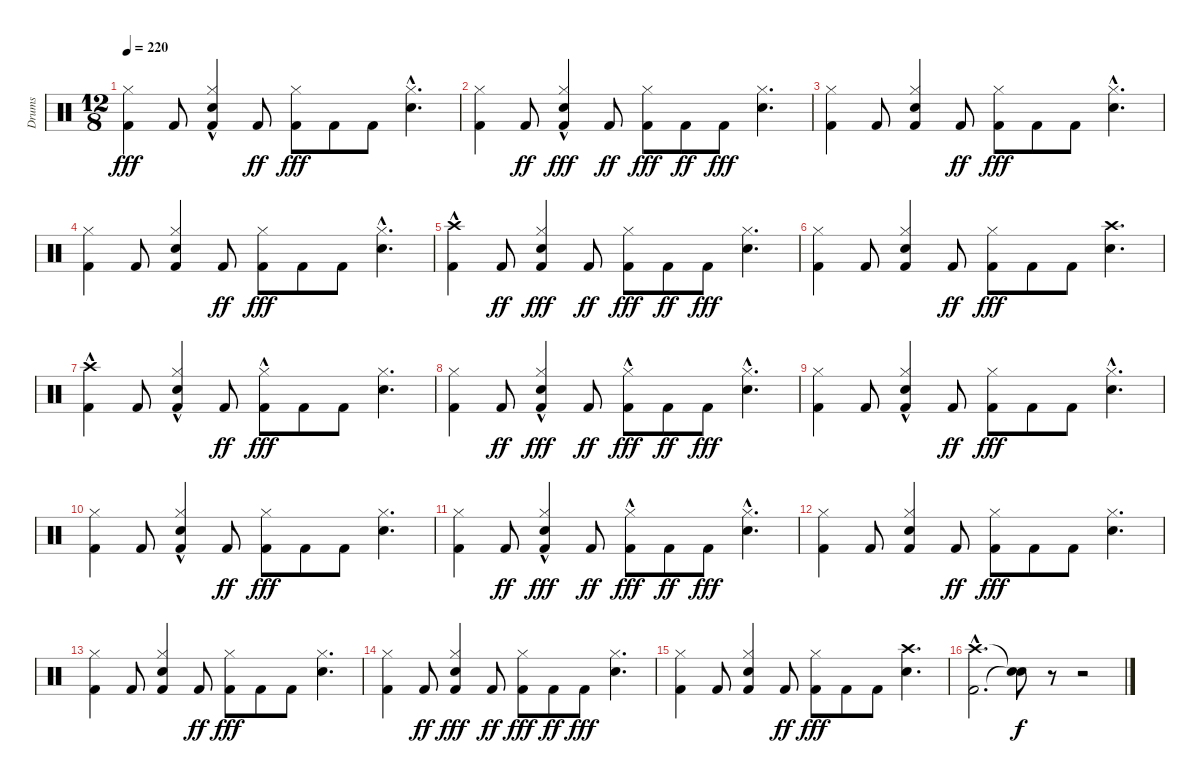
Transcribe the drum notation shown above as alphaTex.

\track ("Drums" "Drums") {instrument percussion}
\staff {score}
\articulation defaults
\ts (12 8)
\tempo 220
\clef neutral
\ks c
("Kick (hit) 2" "Hi-Hat (closed)").4{dy fff} "Kick (hit) 2".8 ("Kick (hit) 2" "Snare (hit) 2" "Hi-Hat (closed)"{hac}).4 "Kick (hit) 2".8{dy ff} ("Kick (hit) 2" "Hi-Hat (closed)").8{dy fff} "Kick (hit) 2".8 "Kick (hit) 2".8 ("Snare (hit) 2" "Hi-Hat (closed)"{hac}).4{d} |
("Kick (hit) 2" "Hi-Hat (closed)").4 "Kick (hit) 2".8{dy ff} ("Kick (hit) 2" "Snare (hit) 2" "Hi-Hat (closed)"{hac}).4{dy fff} "Kick (hit) 2".8{dy ff} ("Kick (hit) 2" "Hi-Hat (closed)").8{dy fff} "Kick (hit) 2".8{dy ff} "Kick (hit) 2".8{dy fff} ("Snare (hit) 2" "Hi-Hat (closed)").4{d} |
("Kick (hit) 2" "Hi-Hat (closed)").4 "Kick (hit) 2".8 ("Kick (hit) 2" "Snare (hit) 2" "Hi-Hat (closed)").4 "Kick (hit) 2".8{dy ff} ("Kick (hit) 2" "Hi-Hat (closed)").8{dy fff} "Kick (hit) 2".8 "Kick (hit) 2".8 ("Snare (hit) 2" "Hi-Hat (closed)"{hac}).4{d} |
("Kick (hit) 2" "Hi-Hat (closed)").4 "Kick (hit) 2".8 ("Kick (hit) 2" "Snare (hit) 2" "Hi-Hat (closed)").4 "Kick (hit) 2".8{dy ff} ("Kick (hit) 2" "Hi-Hat (closed)").8{dy fff} "Kick (hit) 2".8 "Kick (hit) 2".8 ("Snare (hit) 2" "Hi-Hat (closed)"{hac}).4{d} |
("Kick (hit) 2" "Crash high (hit)"{hac}).4 "Kick (hit) 2".8{dy ff} ("Kick (hit) 2" "Snare (hit) 2" "Hi-Hat (closed)").4{dy fff} "Kick (hit) 2".8{dy ff} ("Kick (hit) 2" "Hi-Hat (closed)").8{dy fff} "Kick (hit) 2".8{dy ff} "Kick (hit) 2".8{dy fff} ("Snare (hit) 2" "Hi-Hat (closed)").4{d} |
("Kick (hit) 2" "Hi-Hat (closed)").4 "Kick (hit) 2".8 ("Kick (hit) 2" "Snare (hit) 2" "Hi-Hat (closed)").4 "Kick (hit) 2".8{dy ff} ("Kick (hit) 2" "Hi-Hat (closed)").8{dy fff} "Kick (hit) 2".8 "Kick (hit) 2".8 ("Snare (hit) 2" "Crash high (hit)").4{d} |
("Kick (hit) 2" "Crash high (hit)"{hac}).4 "Kick (hit) 2".8 ("Kick (hit) 2" "Snare (hit) 2" "Hi-Hat (closed)"{hac}).4 "Kick (hit) 2".8{dy ff} ("Kick (hit) 2" "Hi-Hat (closed)"{hac}).8{dy fff} "Kick (hit) 2".8 "Kick (hit) 2".8 ("Snare (hit) 2" "Hi-Hat (closed)").4{d} |
("Kick (hit) 2" "Hi-Hat (closed)").4 "Kick (hit) 2".8{dy ff} ("Kick (hit) 2" "Snare (hit) 2" "Hi-Hat (closed)"{hac}).4{dy fff} "Kick (hit) 2".8{dy ff} ("Kick (hit) 2" "Hi-Hat (closed)"{hac}).8{dy fff} "Kick (hit) 2".8{dy ff} "Kick (hit) 2".8{dy fff} ("Snare (hit) 2" "Hi-Hat (closed)"{hac}).4{d} |
("Kick (hit) 2" "Hi-Hat (closed)").4 "Kick (hit) 2".8 ("Kick (hit) 2" "Snare (hit) 2" "Hi-Hat (closed)"{hac}).4 "Kick (hit) 2".8{dy ff} ("Kick (hit) 2" "Hi-Hat (closed)").8{dy fff} "Kick (hit) 2".8 "Kick (hit) 2".8 ("Snare (hit) 2" "Hi-Hat (closed)"{hac}).4{d} |
("Kick (hit) 2" "Hi-Hat (closed)").4 "Kick (hit) 2".8 ("Kick (hit) 2" "Snare (hit) 2" "Hi-Hat (closed)"{hac}).4 "Kick (hit) 2".8{dy ff} ("Kick (hit) 2" "Hi-Hat (closed)").8{dy fff} "Kick (hit) 2".8 "Kick (hit) 2".8 ("Snare (hit) 2" "Hi-Hat (closed)").4{d} |
("Kick (hit) 2" "Hi-Hat (closed)").4 "Kick (hit) 2".8{dy ff} ("Kick (hit) 2" "Snare (hit) 2" "Hi-Hat (closed)"{hac}).4{dy fff} "Kick (hit) 2".8{dy ff} ("Kick (hit) 2" "Hi-Hat (closed)"{hac}).8{dy fff} "Kick (hit) 2".8{dy ff} "Kick (hit) 2".8{dy fff} ("Snare (hit) 2" "Hi-Hat (closed)"{hac}).4{d} |
("Kick (hit) 2" "Hi-Hat (closed)").4 "Kick (hit) 2".8 ("Kick (hit) 2" "Snare (hit) 2" "Hi-Hat (closed)").4 "Kick (hit) 2".8{dy ff} ("Kick (hit) 2" "Hi-Hat (closed)").8{dy fff} "Kick (hit) 2".8 "Kick (hit) 2".8 ("Snare (hit) 2" "Hi-Hat (closed)").4{d} |
("Kick (hit) 2" "Hi-Hat (closed)").4 "Kick (hit) 2".8 ("Kick (hit) 2" "Snare (hit) 2" "Hi-Hat (closed)").4 "Kick (hit) 2".8{dy ff} ("Kick (hit) 2" "Hi-Hat (closed)").8{dy fff} "Kick (hit) 2".8 "Kick (hit) 2".8 ("Snare (hit) 2" "Hi-Hat (closed)").4{d} |
("Kick (hit) 2" "Hi-Hat (closed)").4 "Kick (hit) 2".8{dy ff} ("Kick (hit) 2" "Snare (hit) 2" "Hi-Hat (closed)").4{dy fff} "Kick (hit) 2".8{dy ff} ("Kick (hit) 2" "Hi-Hat (closed)").8{dy fff} "Kick (hit) 2".8{dy ff} "Kick (hit) 2".8{dy fff} ("Snare (hit) 2" "Hi-Hat (closed)").4{d} |
("Kick (hit) 2" "Hi-Hat (closed)").4 "Kick (hit) 2".8 ("Kick (hit) 2" "Snare (hit) 2" "Hi-Hat (closed)").4 "Kick (hit) 2".8{dy ff} ("Kick (hit) 2" "Hi-Hat (closed)").8{dy fff} "Kick (hit) 2".8 "Kick (hit) 2".8 ("Snare (hit) 2" "Crash high (hit)").4{d} |
("Kick (hit) 2" "Crash high (hit)"{hac}).2{d} ("Snare (hit)"{t} "Snare (hit)"{t}).8{dy f} r.8 r.2
